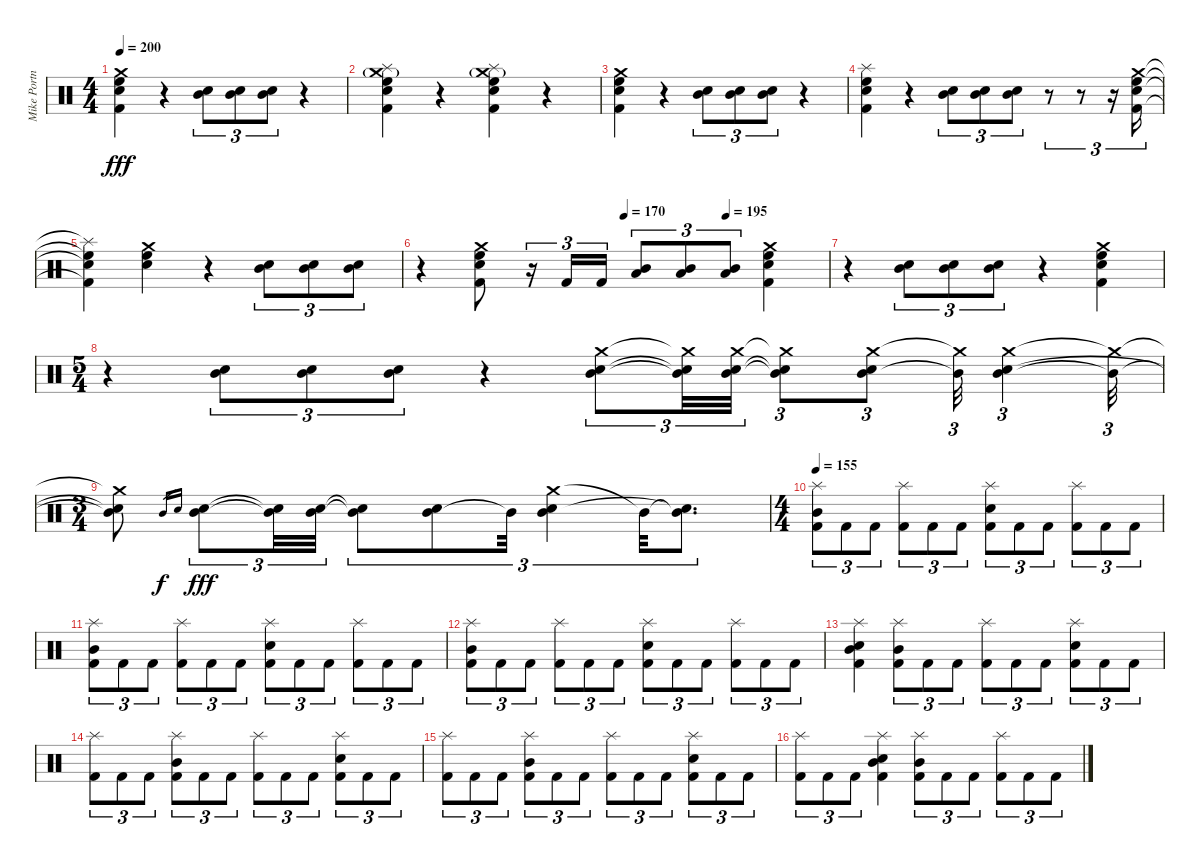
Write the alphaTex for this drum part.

\track ("Mike Portnoy" "Mike Portn") {instrument percussion}
\staff {score}
\articulation defaults
\ts (4 4)
\tempo 200
\clef neutral
\ks c
("Crash medium (hit)" "Electric Snare (hit)" "High Floor Tom (hit)" "Kick (hit) 2").4{dy fff} r.4 ("Electric Snare (hit)" "Mid Tom (hit)").8{tu (3 2) bd 120} ("Electric Snare (hit)" "Mid Tom (hit)").8{tu (3 2) bu 120} ("Electric Snare (hit)" "Mid Tom (hit)").8{tu (3 2) bd 120} r.4 |
("Splash (hit)" "Crash medium (hit)"{g} "Electric Snare (hit)" "High Floor Tom (hit)" "Kick (hit) 2").4 r.4 ("Splash (hit)" "Crash medium (hit)"{g} "Electric Snare (hit)" "High Floor Tom (hit)" "Kick (hit) 2").4 r.4 |
("Crash medium (hit)" "Electric Snare (hit)" "High Floor Tom (hit)" "Kick (hit) 2").4 r.4 ("Electric Snare (hit)" "Mid Tom (hit)").8{tu (3 2)} ("Electric Snare (hit)" "Mid Tom (hit)").8{tu (3 2)} ("Electric Snare (hit)" "Mid Tom (hit)").8{tu (3 2)} r.4 |
("Splash (hit)" "Electric Snare (hit)" "High Floor Tom (hit)" "Kick (hit) 2").4 r.4 ("Electric Snare (hit)" "Mid Tom (hit)").8{tu (3 2) bd 60} ("Electric Snare (hit)" "Mid Tom (hit)").8{tu (3 2) bu 60} ("Electric Snare (hit)" "Mid Tom (hit)").8{tu (3 2) bd 60} r.8{tu (3 2)} r.8{tu (3 2)} r.16{tu (3 2)} ("Crash medium (hit)" "Electric Snare (hit)" "Kick (hit) 2" "High Floor Tom (hit)").16{tu (3 2)} |
("Splash (hit)"{t} "Electric Snare (hit)"{t} "Kick (hit) 2"{t} "High Floor Tom (hit)"{t}).4 ("Crash medium (hit)" "Electric Snare (hit)" "High Floor Tom (hit)").4 r.4 ("Electric Snare (hit)" "Mid Tom (hit)").8{tu (3 2) bd 120} ("Electric Snare (hit)" "Mid Tom (hit)").8{tu (3 2) bu 120} ("Electric Snare (hit)" "Mid Tom (hit)").8{tu (3 2) bd 120} |
\tempo (164 0.5)
\tempo (195 0.75)
\tempo (170 0.5)
r.4 ("Crash medium (hit)" "Electric Snare (hit)" "High Floor Tom (hit)" "Kick (hit) 2").8 r.16{tu (3 2)} "Kick (hit) 2".16{tu (3 2)} "Kick (hit) 2".16{tu (3 2)} ("Mid Tom (hit)" "Low Tom (hit)").8{tu (3 2) bd 60} ("Mid Tom (hit)" "Low Tom (hit)").8{tu (3 2) bu 60} ("Mid Tom (hit)" "Low Tom (hit)").8{tu (3 2) bd 60} ("Crash medium (hit)" "Electric Snare (hit)" "High Floor Tom (hit)" "Kick (hit) 2").4 |
r.4 ("Electric Snare (hit)" "Mid Tom (hit)").8{tu (3 2) bd 120} ("Electric Snare (hit)" "Mid Tom (hit)").8{tu (3 2) bu 120} ("Electric Snare (hit)" "Mid Tom (hit)").8{tu (3 2) bd 120} r.4 ("Crash medium (hit)" "Kick (hit) 2" "Electric Snare (hit)" "High Floor Tom (hit)").4 |
\ts (5 4)
r.4 ("Electric Snare (hit)" "Mid Tom (hit)").8{tu (3 2) bd 120} ("Electric Snare (hit)" "Mid Tom (hit)").8{tu (3 2) bu 120} ("Electric Snare (hit)" "Mid Tom (hit)").8{tu (3 2) bd 120} r.4 ("Crash medium (hit)" "Mid Tom (hit)" "Electric Snare (hit)").8{tu (3 2)} ("Crash medium (hit)"{t} "Mid Tom (hit)"{t} "Electric Snare (hit)"{t}).32{tu (3 2)} ("Crash medium (hit)" "Mid Tom (hit)" "Electric Snare (hit)").32{tu (3 2)} ("Crash medium (hit)"{t} "Mid Tom (hit)"{t} "Electric Snare (hit)"{t}).8{tu (3 2)} ("Crash medium (hit)" "Mid Tom (hit)" "Electric Snare (hit)").8{tu (3 2)} ("Crash medium (hit)"{t} "Mid Tom (hit)"{t}).32{tu (3 2)} ("Crash medium (hit)" "Mid Tom (hit)" "Electric Snare (hit)").4{tu (3 2)} ("Crash medium (hit)"{t} "Mid Tom (hit)"{t}).32{tu (3 2)} |
\ts (3 4)
("Crash medium (hit)"{t} "Mid Tom (hit)"{t} "Electric Snare (hit)"{t}).8 "Mid Tom (hit)".16{gr dy f} "Electric Snare (hit)".16{gr} ("Mid Tom (hit)" "Electric Snare (hit)").8{tu (3 2) dy fff} ("Mid Tom (hit)"{t} "Electric Snare (hit)"{t}).32{tu (3 2)} ("Mid Tom (hit)" "Electric Snare (hit)").32{tu (3 2)} ("Mid Tom (hit)"{t} "Electric Snare (hit)"{t}).8{tu (3 2)} ("Mid Tom (hit)" "Electric Snare (hit)").8{tu (3 2)} "Mid Tom (hit)"{t}.32{tu (3 2)} ("Crash medium (hit)" "Mid Tom (hit)" "Electric Snare (hit)").4{tu (3 2)} "Mid Tom (hit)"{t}.32{tu (3 2)} ("Mid Tom (hit)"{t} "Electric Snare (hit)"{t}).8{d tu (3 2)} |
\ts (4 4)
\tempo 155
("Splash (hit)" "Mid Tom (hit)" "Kick (hit) 2").8{tu (3 2)} "Kick (hit) 2".8{tu (3 2)} "Kick (hit) 2".8{tu (3 2)} ("Splash (hit)" "Kick (hit) 2").8{tu (3 2)} "Kick (hit) 2".8{tu (3 2)} "Kick (hit) 2".8{tu (3 2)} ("Splash (hit)" "Electric Snare (hit)" "Kick (hit) 2").8{tu (3 2)} "Kick (hit) 2".8{tu (3 2)} "Kick (hit) 2".8{tu (3 2)} ("Splash (hit)" "Kick (hit) 2").8{tu (3 2)} "Kick (hit) 2".8{tu (3 2)} "Kick (hit) 2".8{tu (3 2)} |
("Splash (hit)" "Mid Tom (hit)" "Kick (hit) 2").8{tu (3 2)} "Kick (hit) 2".8{tu (3 2)} "Kick (hit) 2".8{tu (3 2)} ("Splash (hit)" "Kick (hit) 2").8{tu (3 2)} "Kick (hit) 2".8{tu (3 2)} "Kick (hit) 2".8{tu (3 2)} ("Splash (hit)" "Electric Snare (hit)" "Kick (hit) 2").8{tu (3 2)} "Kick (hit) 2".8{tu (3 2)} "Kick (hit) 2".8{tu (3 2)} ("Splash (hit)" "Kick (hit) 2").8{tu (3 2)} "Kick (hit) 2".8{tu (3 2)} "Kick (hit) 2".8{tu (3 2)} |
("Splash (hit)" "Mid Tom (hit)" "Kick (hit) 2").8{tu (3 2)} "Kick (hit) 2".8{tu (3 2)} "Kick (hit) 2".8{tu (3 2)} ("Splash (hit)" "Kick (hit) 2").8{tu (3 2)} "Kick (hit) 2".8{tu (3 2)} "Kick (hit) 2".8{tu (3 2)} ("Splash (hit)" "Electric Snare (hit)" "Kick (hit) 2").8{tu (3 2)} "Kick (hit) 2".8{tu (3 2)} "Kick (hit) 2".8{tu (3 2)} ("Splash (hit)" "Kick (hit) 2").8{tu (3 2)} "Kick (hit) 2".8{tu (3 2)} "Kick (hit) 2".8{tu (3 2)} |
("Splash (hit)" "Mid Tom (hit)" "Electric Snare (hit)" "Kick (hit) 2").4 ("Splash (hit)" "Mid Tom (hit)" "Kick (hit) 2").8{tu (3 2)} "Kick (hit) 2".8{tu (3 2)} "Kick (hit) 2".8{tu (3 2)} ("Splash (hit)" "Kick (hit) 2").8{tu (3 2)} "Kick (hit) 2".8{tu (3 2)} "Kick (hit) 2".8{tu (3 2)} ("Splash (hit)" "Electric Snare (hit)" "Kick (hit) 2").8{tu (3 2)} "Kick (hit) 2".8{tu (3 2)} "Kick (hit) 2".8{tu (3 2)} |
("Splash (hit)" "Kick (hit) 2").8{tu (3 2)} "Kick (hit) 2".8{tu (3 2)} "Kick (hit) 2".8{tu (3 2)} ("Splash (hit)" "Mid Tom (hit)" "Kick (hit) 2").8{tu (3 2)} "Kick (hit) 2".8{tu (3 2)} "Kick (hit) 2".8{tu (3 2)} ("Splash (hit)" "Kick (hit) 2").8{tu (3 2)} "Kick (hit) 2".8{tu (3 2)} "Kick (hit) 2".8{tu (3 2)} ("Splash (hit)" "Electric Snare (hit)" "Kick (hit) 2").8{tu (3 2)} "Kick (hit) 2".8{tu (3 2)} "Kick (hit) 2".8{tu (3 2)} |
("Splash (hit)" "Kick (hit) 2").8{tu (3 2)} "Kick (hit) 2".8{tu (3 2)} "Kick (hit) 2".8{tu (3 2)} ("Splash (hit)" "Mid Tom (hit)" "Kick (hit) 2").8{tu (3 2)} "Kick (hit) 2".8{tu (3 2)} "Kick (hit) 2".8{tu (3 2)} ("Splash (hit)" "Kick (hit) 2").8{tu (3 2)} "Kick (hit) 2".8{tu (3 2)} "Kick (hit) 2".8{tu (3 2)} ("Splash (hit)" "Electric Snare (hit)" "Kick (hit) 2").8{tu (3 2)} "Kick (hit) 2".8{tu (3 2)} "Kick (hit) 2".8{tu (3 2)} |
("Splash (hit)" "Kick (hit) 2").8{tu (3 2)} "Kick (hit) 2".8{tu (3 2)} "Kick (hit) 2".8{tu (3 2)} ("Splash (hit)" "Mid Tom (hit)" "Electric Snare (hit)" "Kick (hit) 2").4 ("Splash (hit)" "Mid Tom (hit)" "Kick (hit) 2").8{tu (3 2)} "Kick (hit) 2".8{tu (3 2)} "Kick (hit) 2".8{tu (3 2)} ("Splash (hit)" "Kick (hit) 2").8{tu (3 2)} "Kick (hit) 2".8{tu (3 2)} "Kick (hit) 2".8{tu (3 2)}
